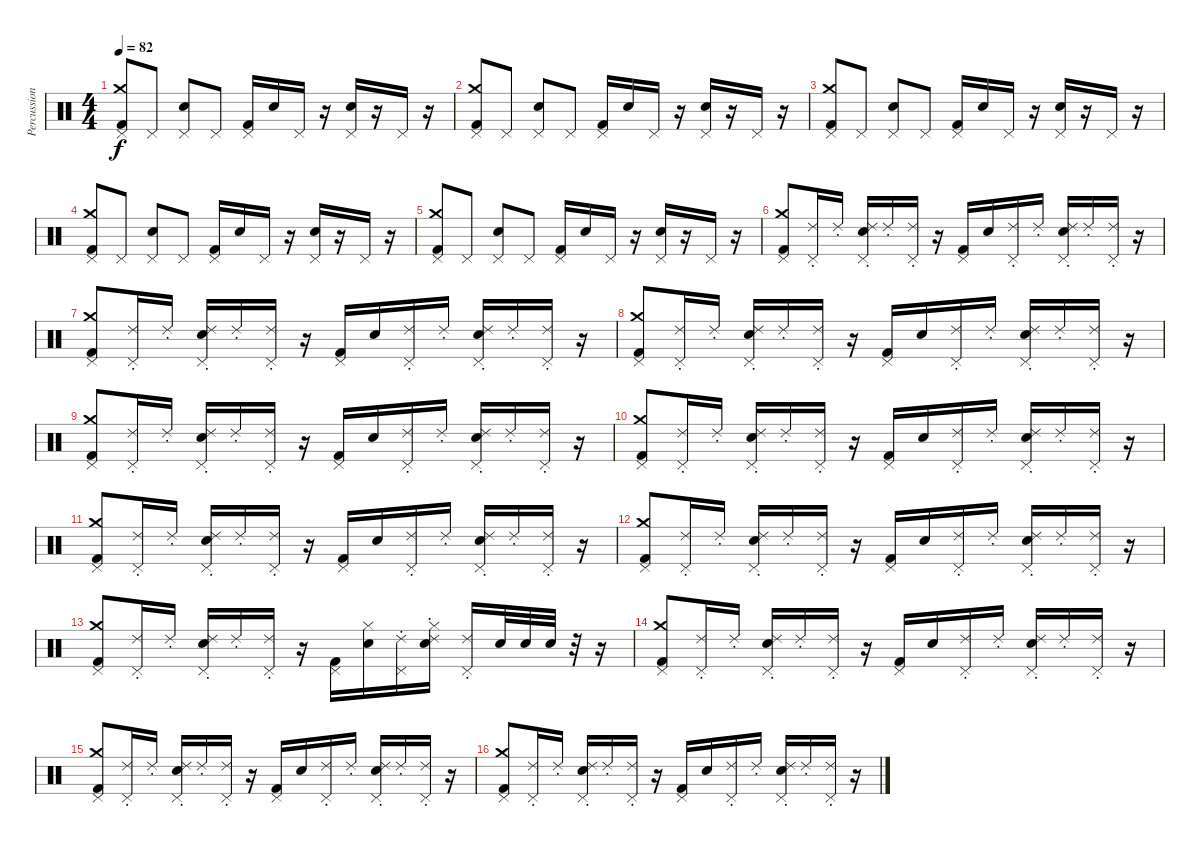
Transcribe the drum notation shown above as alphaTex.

\track ("Percussion" "Percussion") {instrument percussion}
\staff {score}
\articulation defaults
\ts (4 4)
\tempo 82
\clef neutral
\ks c
("Pedal Hi-Hat (hit)" "Crash medium (hit)" "Kick (hit) 2").8{dy f} "Pedal Hi-Hat (hit)".8 ("Pedal Hi-Hat (hit)" "Electric Snare (hit)").8 "Pedal Hi-Hat (hit)".8 ("Pedal Hi-Hat (hit)" "Kick (hit) 2").16 "Electric Snare (hit)".16 "Pedal Hi-Hat (hit)".16 r.16 ("Pedal Hi-Hat (hit)" "Electric Snare (hit)").16 r.16 "Pedal Hi-Hat (hit)".16 r.16 |
("Pedal Hi-Hat (hit)" "Crash medium (hit)" "Kick (hit) 2").8 "Pedal Hi-Hat (hit)".8 ("Pedal Hi-Hat (hit)" "Electric Snare (hit)").8 "Pedal Hi-Hat (hit)".8 ("Pedal Hi-Hat (hit)" "Kick (hit) 2").16 "Electric Snare (hit)".16 "Pedal Hi-Hat (hit)".16 r.16 ("Pedal Hi-Hat (hit)" "Electric Snare (hit)").16 r.16 "Pedal Hi-Hat (hit)".16 r.16 |
("Pedal Hi-Hat (hit)" "Crash medium (hit)" "Kick (hit) 2").8 "Pedal Hi-Hat (hit)".8 ("Pedal Hi-Hat (hit)" "Electric Snare (hit)").8 "Pedal Hi-Hat (hit)".8 ("Pedal Hi-Hat (hit)" "Kick (hit) 2").16 "Electric Snare (hit)".16 "Pedal Hi-Hat (hit)".16 r.16 ("Pedal Hi-Hat (hit)" "Electric Snare (hit)").16 r.16 "Pedal Hi-Hat (hit)".16 r.16 |
("Pedal Hi-Hat (hit)" "Crash medium (hit)" "Kick (hit) 2").8 "Pedal Hi-Hat (hit)".8 ("Pedal Hi-Hat (hit)" "Electric Snare (hit)").8 "Pedal Hi-Hat (hit)".8 ("Pedal Hi-Hat (hit)" "Kick (hit) 2").16 "Electric Snare (hit)".16 "Pedal Hi-Hat (hit)".16 r.16 ("Pedal Hi-Hat (hit)" "Electric Snare (hit)").16 r.16 "Pedal Hi-Hat (hit)".16 r.16 |
("Pedal Hi-Hat (hit)" "Crash medium (hit)" "Kick (hit) 2").8 "Pedal Hi-Hat (hit)".8 ("Pedal Hi-Hat (hit)" "Electric Snare (hit)").8 "Pedal Hi-Hat (hit)".8 ("Pedal Hi-Hat (hit)" "Kick (hit) 2").16 "Electric Snare (hit)".16 "Pedal Hi-Hat (hit)".16 r.16 ("Pedal Hi-Hat (hit)" "Electric Snare (hit)").16 r.16 "Pedal Hi-Hat (hit)".16 r.16 |
("Pedal Hi-Hat (hit)" "Crash medium (hit)" "Kick (hit) 2").8 ("Pedal Hi-Hat (hit)" "Ride (choke) 2").16 "Ride (choke) 2".16 ("Pedal Hi-Hat (hit)" "Electric Snare (hit)" "Ride (choke) 2").16 "Ride (choke) 2".16 ("Pedal Hi-Hat (hit)" "Ride (choke) 2").16 r.16 ("Pedal Hi-Hat (hit)" "Kick (hit) 2").16 "Electric Snare (hit)".16 ("Pedal Hi-Hat (hit)" "Ride (choke) 2").16 "Ride (choke) 2".16 ("Pedal Hi-Hat (hit)" "Electric Snare (hit)" "Ride (choke) 2").16 "Ride (choke) 2".16 ("Pedal Hi-Hat (hit)" "Ride (choke) 2").16 r.16 |
("Pedal Hi-Hat (hit)" "Crash medium (hit)" "Kick (hit) 2").8 ("Pedal Hi-Hat (hit)" "Ride (choke) 2").16 "Ride (choke) 2".16 ("Pedal Hi-Hat (hit)" "Electric Snare (hit)" "Ride (choke) 2").16 "Ride (choke) 2".16 ("Pedal Hi-Hat (hit)" "Ride (choke) 2").16 r.16 ("Pedal Hi-Hat (hit)" "Kick (hit) 2").16 "Electric Snare (hit)".16 ("Pedal Hi-Hat (hit)" "Ride (choke) 2").16 "Ride (choke) 2".16 ("Pedal Hi-Hat (hit)" "Electric Snare (hit)" "Ride (choke) 2").16 "Ride (choke) 2".16 ("Pedal Hi-Hat (hit)" "Ride (choke) 2").16 r.16 |
("Pedal Hi-Hat (hit)" "Crash medium (hit)" "Kick (hit) 2").8 ("Pedal Hi-Hat (hit)" "Ride (choke) 2").16 "Ride (choke) 2".16 ("Pedal Hi-Hat (hit)" "Electric Snare (hit)" "Ride (choke) 2").16 "Ride (choke) 2".16 ("Pedal Hi-Hat (hit)" "Ride (choke) 2").16 r.16 ("Pedal Hi-Hat (hit)" "Kick (hit) 2").16 "Electric Snare (hit)".16 ("Pedal Hi-Hat (hit)" "Ride (choke) 2").16 "Ride (choke) 2".16 ("Pedal Hi-Hat (hit)" "Electric Snare (hit)" "Ride (choke) 2").16 "Ride (choke) 2".16 ("Pedal Hi-Hat (hit)" "Ride (choke) 2").16 r.16 |
("Pedal Hi-Hat (hit)" "Crash medium (hit)" "Kick (hit) 2").8 ("Pedal Hi-Hat (hit)" "Ride (choke) 2").16 "Ride (choke) 2".16 ("Pedal Hi-Hat (hit)" "Electric Snare (hit)" "Ride (choke) 2").16 "Ride (choke) 2".16 ("Pedal Hi-Hat (hit)" "Ride (choke) 2").16 r.16 ("Pedal Hi-Hat (hit)" "Kick (hit) 2").16 "Electric Snare (hit)".16 ("Pedal Hi-Hat (hit)" "Ride (choke) 2").16 "Ride (choke) 2".16 ("Pedal Hi-Hat (hit)" "Electric Snare (hit)" "Ride (choke) 2").16 "Ride (choke) 2".16 ("Pedal Hi-Hat (hit)" "Ride (choke) 2").16 r.16 |
("Pedal Hi-Hat (hit)" "Crash medium (hit)" "Kick (hit) 2").8 ("Pedal Hi-Hat (hit)" "Ride (choke) 2").16 "Ride (choke) 2".16 ("Pedal Hi-Hat (hit)" "Electric Snare (hit)" "Ride (choke) 2").16 "Ride (choke) 2".16 ("Pedal Hi-Hat (hit)" "Ride (choke) 2").16 r.16 ("Pedal Hi-Hat (hit)" "Kick (hit) 2").16 "Electric Snare (hit)".16 ("Pedal Hi-Hat (hit)" "Ride (choke) 2").16 "Ride (choke) 2".16 ("Pedal Hi-Hat (hit)" "Electric Snare (hit)" "Ride (choke) 2").16 "Ride (choke) 2".16 ("Pedal Hi-Hat (hit)" "Ride (choke) 2").16 r.16 |
("Pedal Hi-Hat (hit)" "Crash medium (hit)" "Kick (hit) 2").8 ("Pedal Hi-Hat (hit)" "Ride (choke) 2").16 "Ride (choke) 2".16 ("Pedal Hi-Hat (hit)" "Electric Snare (hit)" "Ride (choke) 2").16 "Ride (choke) 2".16 ("Pedal Hi-Hat (hit)" "Ride (choke) 2").16 r.16 ("Pedal Hi-Hat (hit)" "Kick (hit) 2").16 "Electric Snare (hit)".16 ("Pedal Hi-Hat (hit)" "Ride (choke) 2").16 "Ride (choke) 2".16 ("Pedal Hi-Hat (hit)" "Electric Snare (hit)" "Ride (choke) 2").16 "Ride (choke) 2".16 ("Pedal Hi-Hat (hit)" "Ride (choke) 2").16 r.16 |
("Pedal Hi-Hat (hit)" "Crash medium (hit)" "Kick (hit) 2").8 ("Pedal Hi-Hat (hit)" "Ride (choke) 2").16 "Ride (choke) 2".16 ("Pedal Hi-Hat (hit)" "Electric Snare (hit)" "Ride (choke) 2").16 "Ride (choke) 2".16 ("Pedal Hi-Hat (hit)" "Ride (choke) 2").16 r.16 ("Pedal Hi-Hat (hit)" "Kick (hit) 2").16 "Electric Snare (hit)".16 ("Pedal Hi-Hat (hit)" "Ride (choke) 2").16 "Ride (choke) 2".16 ("Pedal Hi-Hat (hit)" "Electric Snare (hit)" "Ride (choke) 2").16 "Ride (choke) 2".16 ("Pedal Hi-Hat (hit)" "Ride (choke) 2").16 r.16 |
("Pedal Hi-Hat (hit)" "Crash medium (hit)" "Kick (hit) 2").8 ("Pedal Hi-Hat (hit)" "Ride (choke) 2").16 "Ride (choke) 2".16 ("Pedal Hi-Hat (hit)" "Electric Snare (hit)" "Ride (choke) 2").16 "Ride (choke) 2".16 ("Pedal Hi-Hat (hit)" "Ride (choke) 2").16 r.16 ("Pedal Hi-Hat (hit)" "Kick (hit) 2").16 ("Hi-Hat (closed)" "Electric Snare (hit)").16 ("Pedal Hi-Hat (hit)" "Ride (choke) 2").16 ("Hi-Hat (closed)" "Electric Snare (hit)" "Ride (choke) 2").16 ("Pedal Hi-Hat (hit)" "Ride (choke) 2").16 "Electric Snare (hit)".32 "Electric Snare (hit)".32 "Electric Snare (hit)".32 r.32 r.16 |
("Pedal Hi-Hat (hit)" "Crash medium (hit)" "Kick (hit) 2").8 ("Pedal Hi-Hat (hit)" "Ride (choke) 2").16 "Ride (choke) 2".16 ("Pedal Hi-Hat (hit)" "Electric Snare (hit)" "Ride (choke) 2").16 "Ride (choke) 2".16 ("Pedal Hi-Hat (hit)" "Ride (choke) 2").16 r.16 ("Pedal Hi-Hat (hit)" "Kick (hit) 2").16 "Electric Snare (hit)".16 ("Pedal Hi-Hat (hit)" "Ride (choke) 2").16 "Ride (choke) 2".16 ("Pedal Hi-Hat (hit)" "Electric Snare (hit)" "Ride (choke) 2").16 "Ride (choke) 2".16 ("Pedal Hi-Hat (hit)" "Ride (choke) 2").16 r.16 |
("Pedal Hi-Hat (hit)" "Crash medium (hit)" "Kick (hit) 2").8 ("Pedal Hi-Hat (hit)" "Ride (choke) 2").16 "Ride (choke) 2".16 ("Pedal Hi-Hat (hit)" "Electric Snare (hit)" "Ride (choke) 2").16 "Ride (choke) 2".16 ("Pedal Hi-Hat (hit)" "Ride (choke) 2").16 r.16 ("Pedal Hi-Hat (hit)" "Kick (hit) 2").16 "Electric Snare (hit)".16 ("Pedal Hi-Hat (hit)" "Ride (choke) 2").16 "Ride (choke) 2".16 ("Pedal Hi-Hat (hit)" "Electric Snare (hit)" "Ride (choke) 2").16 "Ride (choke) 2".16 ("Pedal Hi-Hat (hit)" "Ride (choke) 2").16 r.16 |
("Pedal Hi-Hat (hit)" "Crash medium (hit)" "Kick (hit) 2").8 ("Pedal Hi-Hat (hit)" "Ride (choke) 2").16 "Ride (choke) 2".16 ("Pedal Hi-Hat (hit)" "Electric Snare (hit)" "Ride (choke) 2").16 "Ride (choke) 2".16 ("Pedal Hi-Hat (hit)" "Ride (choke) 2").16 r.16 ("Pedal Hi-Hat (hit)" "Kick (hit) 2").16 "Electric Snare (hit)".16 ("Pedal Hi-Hat (hit)" "Ride (choke) 2").16 "Ride (choke) 2".16 ("Pedal Hi-Hat (hit)" "Electric Snare (hit)" "Ride (choke) 2").16 "Ride (choke) 2".16 ("Pedal Hi-Hat (hit)" "Ride (choke) 2").16 r.16
